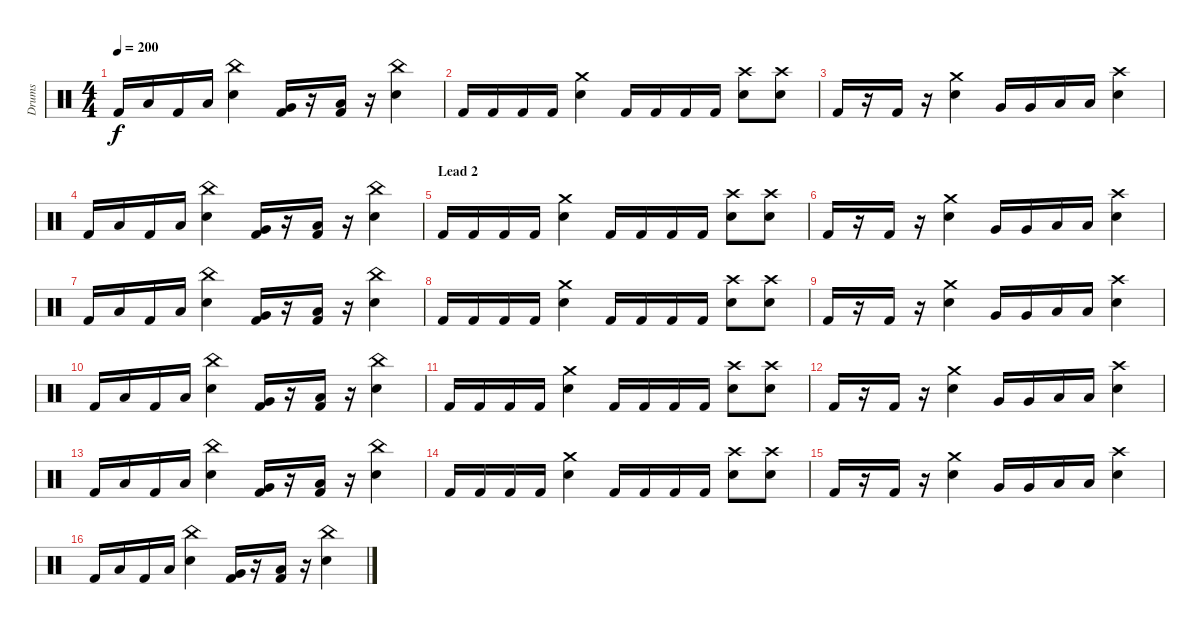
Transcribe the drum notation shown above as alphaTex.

\track ("Drums" "Drums") {instrument percussion}
\staff {score}
\articulation defaults
\ts (4 4)
\tempo 200
\clef neutral
\ks c "Kick (hit) 2".16{dy f} "Low Floor Tom (hit)".16 "Kick (hit) 2".16 "Low Floor Tom (hit)".16
("China (hit)" "Electric Snare (hit)").4 ("Very Low Tom (hit)" "Kick (hit) 2").16 r.16 ("Low Floor Tom (hit)" "Kick (hit) 2").16 r.16 ("China (hit)" "Electric Snare (hit)").4 |
"Kick (hit) 2".16 "Kick (hit) 2".16 "Kick (hit) 2".16 "Kick (hit) 2".16 ("Crash medium (hit)" "Electric Snare (hit)").4 "Kick (hit) 2".16 "Kick (hit) 2".16 "Kick (hit) 2".16 "Kick (hit) 2".16 ("Crash high (hit)" "Electric Snare (hit)").8 ("Crash high (hit)" "Electric Snare (hit)").8 |
"Kick (hit) 2".16 r.16 "Kick (hit) 2".16 r.16 ("Crash medium (hit)" "Electric Snare (hit)").4 "Very Low Tom (hit)".16 "Very Low Tom (hit)".16 "Low Floor Tom (hit)".16 "Low Floor Tom (hit)".16 ("Crash high (hit)" "Electric Snare (hit)").4 |
"Kick (hit) 2".16 "Low Floor Tom (hit)".16 "Kick (hit) 2".16 "Low Floor Tom (hit)".16 ("China (hit)" "Electric Snare (hit)").4 ("Very Low Tom (hit)" "Kick (hit) 2").16 r.16 ("Low Floor Tom (hit)" "Kick (hit) 2").16 r.16 ("China (hit)" "Electric Snare (hit)").4 |
\section ("" "Lead 2")
"Kick (hit) 2".16 "Kick (hit) 2".16 "Kick (hit) 2".16 "Kick (hit) 2".16 ("Crash medium (hit)" "Electric Snare (hit)").4 "Kick (hit) 2".16 "Kick (hit) 2".16 "Kick (hit) 2".16 "Kick (hit) 2".16 ("Crash high (hit)" "Electric Snare (hit)").8 ("Crash high (hit)" "Electric Snare (hit)").8 |
"Kick (hit) 2".16 r.16 "Kick (hit) 2".16 r.16 ("Crash medium (hit)" "Electric Snare (hit)").4 "Very Low Tom (hit)".16 "Very Low Tom (hit)".16 "Low Floor Tom (hit)".16 "Low Floor Tom (hit)".16 ("Crash high (hit)" "Electric Snare (hit)").4 |
"Kick (hit) 2".16 "Low Floor Tom (hit)".16 "Kick (hit) 2".16 "Low Floor Tom (hit)".16 ("China (hit)" "Electric Snare (hit)").4 ("Very Low Tom (hit)" "Kick (hit) 2").16 r.16 ("Low Floor Tom (hit)" "Kick (hit) 2").16 r.16 ("China (hit)" "Electric Snare (hit)").4 |
"Kick (hit) 2".16 "Kick (hit) 2".16 "Kick (hit) 2".16 "Kick (hit) 2".16 ("Crash medium (hit)" "Electric Snare (hit)").4 "Kick (hit) 2".16 "Kick (hit) 2".16 "Kick (hit) 2".16 "Kick (hit) 2".16 ("Crash high (hit)" "Electric Snare (hit)").8 ("Crash high (hit)" "Electric Snare (hit)").8 |
"Kick (hit) 2".16 r.16 "Kick (hit) 2".16 r.16 ("Crash medium (hit)" "Electric Snare (hit)").4 "Very Low Tom (hit)".16 "Very Low Tom (hit)".16 "Low Floor Tom (hit)".16 "Low Floor Tom (hit)".16 ("Crash high (hit)" "Electric Snare (hit)").4 |
"Kick (hit) 2".16 "Low Floor Tom (hit)".16 "Kick (hit) 2".16 "Low Floor Tom (hit)".16 ("China (hit)" "Electric Snare (hit)").4 ("Very Low Tom (hit)" "Kick (hit) 2").16 r.16 ("Low Floor Tom (hit)" "Kick (hit) 2").16 r.16 ("China (hit)" "Electric Snare (hit)").4 |
"Kick (hit) 2".16 "Kick (hit) 2".16 "Kick (hit) 2".16 "Kick (hit) 2".16 ("Crash medium (hit)" "Electric Snare (hit)").4 "Kick (hit) 2".16 "Kick (hit) 2".16 "Kick (hit) 2".16 "Kick (hit) 2".16 ("Crash high (hit)" "Electric Snare (hit)").8 ("Crash high (hit)" "Electric Snare (hit)").8 |
"Kick (hit) 2".16 r.16 "Kick (hit) 2".16 r.16 ("Crash medium (hit)" "Electric Snare (hit)").4 "Very Low Tom (hit)".16 "Very Low Tom (hit)".16 "Low Floor Tom (hit)".16 "Low Floor Tom (hit)".16 ("Crash high (hit)" "Electric Snare (hit)").4 |
"Kick (hit) 2".16 "Low Floor Tom (hit)".16 "Kick (hit) 2".16 "Low Floor Tom (hit)".16 ("China (hit)" "Electric Snare (hit)").4 ("Very Low Tom (hit)" "Kick (hit) 2").16 r.16 ("Low Floor Tom (hit)" "Kick (hit) 2").16 r.16 ("China (hit)" "Electric Snare (hit)").4 |
"Kick (hit) 2".16 "Kick (hit) 2".16 "Kick (hit) 2".16 "Kick (hit) 2".16 ("Crash medium (hit)" "Electric Snare (hit)").4 "Kick (hit) 2".16 "Kick (hit) 2".16 "Kick (hit) 2".16 "Kick (hit) 2".16 ("Crash high (hit)" "Electric Snare (hit)").8 ("Crash high (hit)" "Electric Snare (hit)").8 |
"Kick (hit) 2".16 r.16 "Kick (hit) 2".16 r.16 ("Crash medium (hit)" "Electric Snare (hit)").4 "Very Low Tom (hit)".16 "Very Low Tom (hit)".16 "Low Floor Tom (hit)".16 "Low Floor Tom (hit)".16 ("Crash high (hit)" "Electric Snare (hit)").4 |
"Kick (hit) 2".16 "Low Floor Tom (hit)".16 "Kick (hit) 2".16 "Low Floor Tom (hit)".16 ("China (hit)" "Electric Snare (hit)").4 ("Very Low Tom (hit)" "Kick (hit) 2").16 r.16 ("Low Floor Tom (hit)" "Kick (hit) 2").16 r.16 ("China (hit)" "Electric Snare (hit)").4
